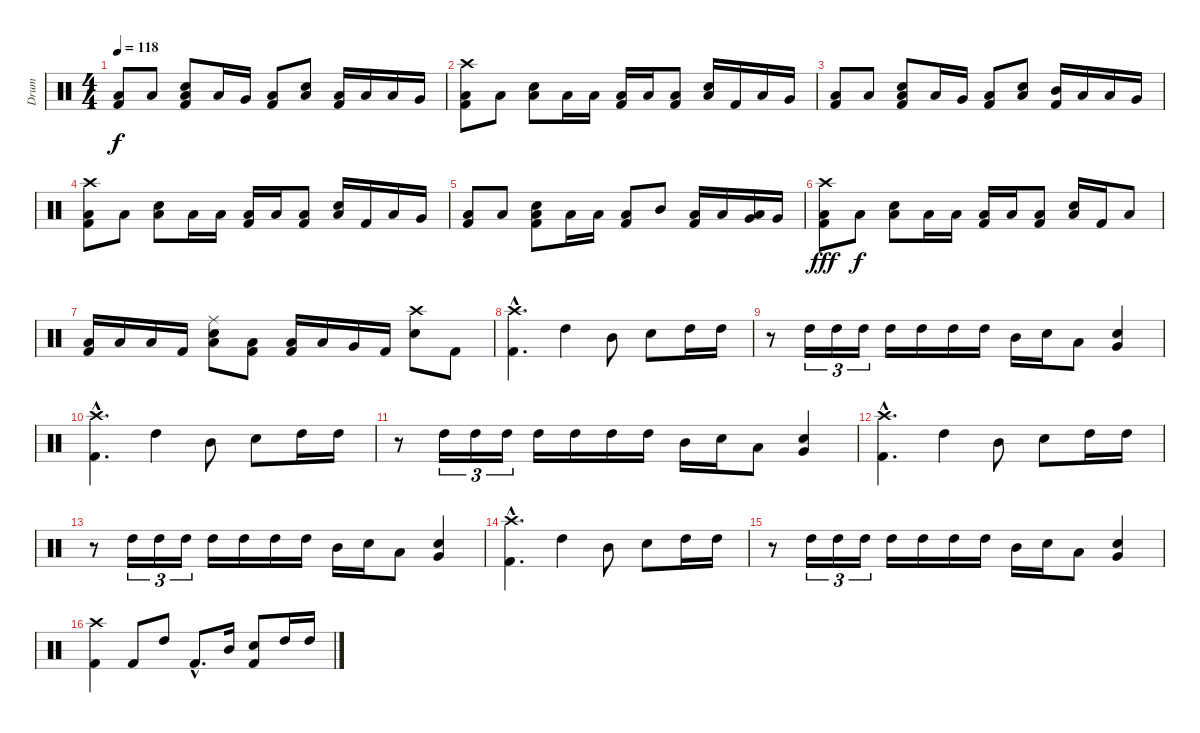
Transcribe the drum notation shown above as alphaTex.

\track ("Drum" "Drum") {instrument percussion}
\staff {score}
\articulation defaults
\ts (4 4)
\tempo 118
\clef neutral
\ks c
("Low Floor Tom (hit)" "Kick (hit) 2").8{dy f} "Low Floor Tom (hit)".8 ("Snare (hit) 2" "Low Floor Tom (hit)" "Kick (hit) 2").8 "Low Floor Tom (hit)".16 "Very Low Tom (hit)".16 ("Low Floor Tom (hit)" "Kick (hit) 2").8 ("Snare (hit) 2" "Low Floor Tom (hit)").8 ("Low Floor Tom (hit)" "Kick (hit) 2").16 "Low Tom (hit)".16 "Low Floor Tom (hit)".16 "Very Low Tom (hit)".16 |
("Crash high (hit)" "Low Floor Tom (hit)" "Kick (hit) 2").8 "Low Floor Tom (hit)".8 ("Snare (hit) 2" "Low Floor Tom (hit)").8 "Low Floor Tom (hit)".16 "Low Tom (hit)".16 ("Low Floor Tom (hit)" "Kick (hit) 2").16 "Low Tom (hit)".16 ("Low Floor Tom (hit)" "Kick (hit) 2").8 ("Snare (hit) 2" "Low Floor Tom (hit)").16 "Kick (hit) 2".16 "Low Floor Tom (hit)".16 "Very Low Tom (hit)".16 |
("Low Floor Tom (hit)" "Kick (hit) 2").8 "Low Floor Tom (hit)".8 ("Snare (hit) 2" "Low Floor Tom (hit)" "Kick (hit) 2").8 "Low Floor Tom (hit)".16 "Very Low Tom (hit)".16 ("Low Floor Tom (hit)" "Kick (hit) 2").8 ("Snare (hit) 2" "Low Floor Tom (hit)").8 ("Mid Tom (hit)" "Kick (hit) 2").16 "Low Tom (hit)".16 "Low Tom (hit)".16 "Very Low Tom (hit)".16 |
("Crash high (hit)" "Low Floor Tom (hit)" "Kick (hit) 2").8 "Low Floor Tom (hit)".8 ("Snare (hit) 2" "Low Floor Tom (hit)").8 "Low Floor Tom (hit)".16 "Low Tom (hit)".16 ("Low Floor Tom (hit)" "Kick (hit) 2").16 "Low Tom (hit)".16 ("Low Floor Tom (hit)" "Kick (hit) 2").8 ("Snare (hit) 2" "Low Floor Tom (hit)").16 "Kick (hit) 2".16 "Low Floor Tom (hit)".16 "Very Low Tom (hit)".16 |
("Low Floor Tom (hit)" "Kick (hit) 2").8 "Low Floor Tom (hit)".8 ("Snare (hit) 2" "Low Floor Tom (hit)" "Kick (hit) 2").8 "Low Floor Tom (hit)".16 "Low Tom (hit)".16 ("Low Floor Tom (hit)" "Kick (hit) 2").8 "Mid Tom (hit)".8 ("Low Floor Tom (hit)" "Kick (hit) 2").16 "Low Tom (hit)".16 ("Very Low Tom (hit)" "Low Floor Tom (hit)").16 "Very Low Tom (hit)".16 |
("Crash high (hit)" "Low Floor Tom (hit)" "Kick (hit) 2").8{dy fff} "Low Floor Tom (hit)".8{dy f} ("Snare (hit) 2" "Low Floor Tom (hit)").8 "Low Floor Tom (hit)".16 "Low Tom (hit)".16 ("Low Floor Tom (hit)" "Kick (hit) 2").16 "Low Tom (hit)".16 ("Low Floor Tom (hit)" "Kick (hit) 2").8 ("Snare (hit) 2" "Low Floor Tom (hit)").16 "Kick (hit) 2".16 "Low Floor Tom (hit)".8 |
("Low Floor Tom (hit)" "Kick (hit) 2").16 "Low Tom (hit)".16 "Low Floor Tom (hit)".16 "Kick (hit) 2".16 ("Ride (middle)" "Snare (hit) 2" "Low Floor Tom (hit)").8 ("Low Floor Tom (hit)" "Kick (hit) 2").8 ("Low Floor Tom (hit)" "Kick (hit) 2").16 "Low Tom (hit)".16 "Very Low Tom (hit)".16 "Kick (hit) 2".16 ("Crash high (hit)" "Snare (hit) 2").8 "Kick (hit) 2".8 |
("Crash high (hit)"{hac} "Kick (hit) 2"{hac}).4{d} "High Tom (hit)".4 "Mid Tom (hit)".8 "Snare (hit) 2".8 "High Tom (hit)".16 "High Tom (hit)".16 |
r.8 "High Tom (hit)".16{tu (3 2)} "High Tom (hit)".16{tu (3 2)} "High Tom (hit)".16{tu (3 2)} "High Tom (hit)".16 "High Tom (hit)".16 "High Tom (hit)".16 "High Tom (hit)".16 "Mid Tom (hit)".16 "Snare (hit) 2".16 "Low Tom (hit)".8 ("Snare (hit) 2" "Very Low Tom (hit)").4 |
("Crash high (hit)"{hac} "Kick (hit) 2"{hac}).4{d} "High Tom (hit)".4 "Mid Tom (hit)".8 "Snare (hit) 2".8 "High Tom (hit)".16 "High Tom (hit)".16 |
r.8 "High Tom (hit)".16{tu (3 2)} "High Tom (hit)".16{tu (3 2)} "High Tom (hit)".16{tu (3 2)} "High Tom (hit)".16 "High Tom (hit)".16 "High Tom (hit)".16 "High Tom (hit)".16 "Mid Tom (hit)".16 "Snare (hit) 2".16 "Low Tom (hit)".8 ("Snare (hit) 2" "Very Low Tom (hit)").4 |
("Crash high (hit)"{hac} "Kick (hit) 2"{hac}).4{d} "High Tom (hit)".4 "Mid Tom (hit)".8 "Snare (hit) 2".8 "High Tom (hit)".16 "High Tom (hit)".16 |
r.8 "High Tom (hit)".16{tu (3 2)} "High Tom (hit)".16{tu (3 2)} "High Tom (hit)".16{tu (3 2)} "High Tom (hit)".16 "High Tom (hit)".16 "High Tom (hit)".16 "High Tom (hit)".16 "Mid Tom (hit)".16 "Snare (hit) 2".16 "Low Tom (hit)".8 ("Snare (hit) 2" "Very Low Tom (hit)").4 |
("Crash high (hit)"{hac} "Kick (hit) 2"{hac}).4{d} "High Tom (hit)".4 "Mid Tom (hit)".8 "Snare (hit) 2".8 "High Tom (hit)".16 "High Tom (hit)".16 |
r.8 "High Tom (hit)".16{tu (3 2)} "High Tom (hit)".16{tu (3 2)} "High Tom (hit)".16{tu (3 2)} "High Tom (hit)".16 "High Tom (hit)".16 "High Tom (hit)".16 "High Tom (hit)".16 "Mid Tom (hit)".16 "Snare (hit) 2".16 "Low Tom (hit)".8 ("Snare (hit) 2" "Very Low Tom (hit)").4 |
("Crash high (hit)" "Kick (hit) 2").4 "Kick (hit) 2".8 "High Tom (hit)".8 "Kick (hit) 2"{hac}.8{d} "Mid Tom (hit)".16 ("Snare (hit) 2" "Kick (hit) 2").8 "High Tom (hit)".16 "High Tom (hit)".16
